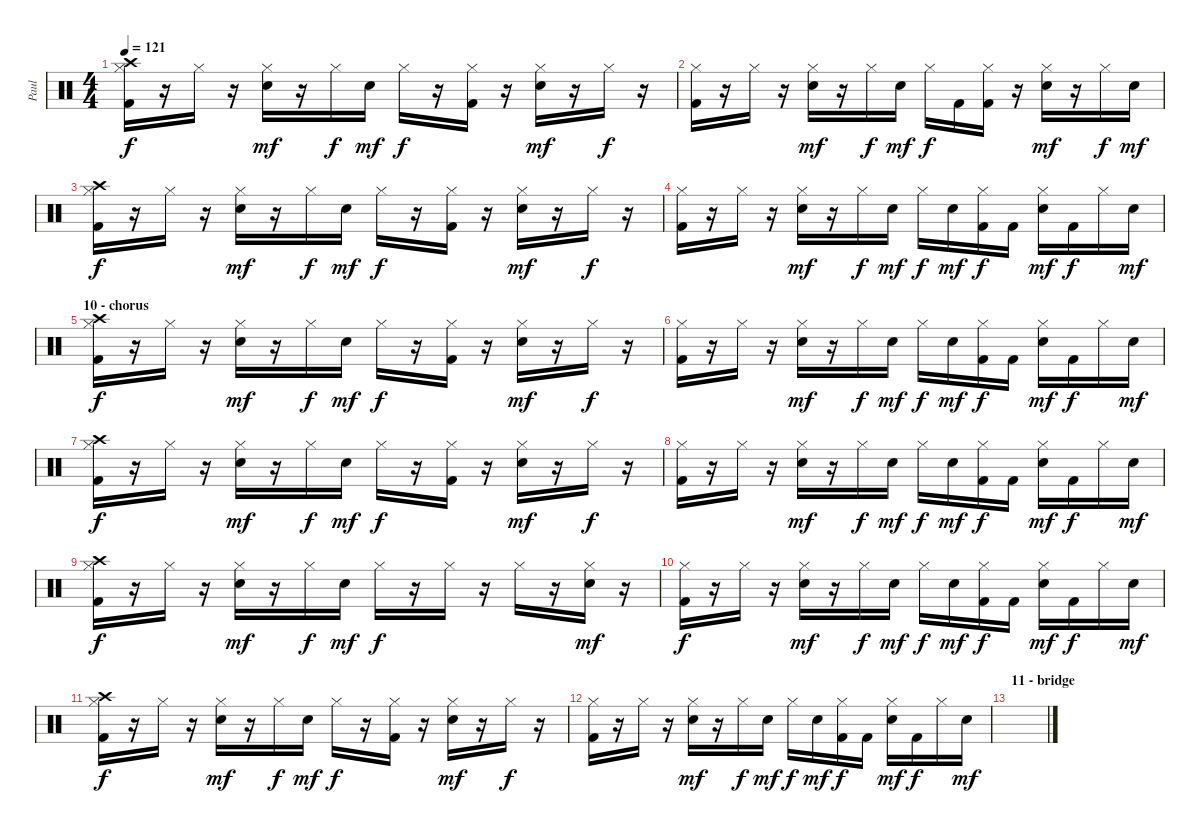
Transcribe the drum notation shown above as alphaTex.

\track ("Paul" "Paul") {instrument percussion}
\staff {score}
\articulation defaults
\ts (4 4)
\tempo 121
\clef neutral
\ks c
("Hi-Hat (closed)" "Crash high (hit)" "Kick (hit) 2").16{dy f} r.16 "Hi-Hat (closed)".16 r.16 ("Hi-Hat (closed)" "Snare (hit) 2").16{dy mf} r.16 "Hi-Hat (closed)".16{dy f} "Snare (hit) 2".16{dy mf} "Hi-Hat (closed)".16{dy f} r.16 ("Hi-Hat (closed)" "Kick (hit) 2").16 r.16 ("Hi-Hat (closed)" "Snare (hit) 2").16{dy mf} r.16 "Hi-Hat (closed)".16{dy f} r.16 |
("Hi-Hat (closed)" "Kick (hit) 2").16 r.16 "Hi-Hat (closed)".16 r.16 ("Hi-Hat (closed)" "Snare (hit) 2").16{dy mf} r.16 "Hi-Hat (closed)".16{dy f} "Snare (hit) 2".16{dy mf} "Hi-Hat (closed)".16{dy f} "Kick (hit) 2".16 ("Hi-Hat (closed)" "Kick (hit) 2").16 r.16 ("Hi-Hat (closed)" "Snare (hit) 2").16{dy mf} r.16 "Hi-Hat (closed)".16{dy f} "Snare (hit) 2".16{dy mf} |
("Hi-Hat (closed)" "Crash high (hit)" "Kick (hit) 2").16{dy f} r.16 "Hi-Hat (closed)".16 r.16 ("Hi-Hat (closed)" "Snare (hit) 2").16{dy mf} r.16 "Hi-Hat (closed)".16{dy f} "Snare (hit) 2".16{dy mf} "Hi-Hat (closed)".16{dy f} r.16 ("Hi-Hat (closed)" "Kick (hit) 2").16 r.16 ("Hi-Hat (closed)" "Snare (hit) 2").16{dy mf} r.16 "Hi-Hat (closed)".16{dy f} r.16 |
("Hi-Hat (closed)" "Kick (hit) 2").16 r.16 "Hi-Hat (closed)".16 r.16 ("Hi-Hat (closed)" "Snare (hit) 2").16{dy mf} r.16 "Hi-Hat (closed)".16{dy f} "Snare (hit) 2".16{dy mf} "Hi-Hat (closed)".16{dy f} "Snare (hit) 2".16{dy mf} ("Hi-Hat (closed)" "Kick (hit) 2").16{dy f} "Kick (hit) 2".16 ("Hi-Hat (closed)" "Snare (hit) 2").16{dy mf} "Kick (hit) 2".16{dy f} "Hi-Hat (closed)".16 "Snare (hit) 2".16{dy mf} |
\section ("" "10 - chorus")
("Hi-Hat (closed)" "Crash high (hit)" "Kick (hit) 2").16{dy f} r.16 "Hi-Hat (closed)".16 r.16 ("Hi-Hat (closed)" "Snare (hit) 2").16{dy mf} r.16 "Hi-Hat (closed)".16{dy f} "Snare (hit) 2".16{dy mf} "Hi-Hat (closed)".16{dy f} r.16 ("Hi-Hat (closed)" "Kick (hit) 2").16 r.16 ("Hi-Hat (closed)" "Snare (hit) 2").16{dy mf} r.16 "Hi-Hat (closed)".16{dy f} r.16 |
("Hi-Hat (closed)" "Kick (hit) 2").16 r.16 "Hi-Hat (closed)".16 r.16 ("Hi-Hat (closed)" "Snare (hit) 2").16{dy mf} r.16 "Hi-Hat (closed)".16{dy f} "Snare (hit) 2".16{dy mf} "Hi-Hat (closed)".16{dy f} "Snare (hit) 2".16{dy mf} ("Hi-Hat (closed)" "Kick (hit) 2").16{dy f} "Kick (hit) 2".16 ("Hi-Hat (closed)" "Snare (hit) 2").16{dy mf} "Kick (hit) 2".16{dy f} "Hi-Hat (closed)".16 "Snare (hit) 2".16{dy mf} |
("Hi-Hat (closed)" "Crash high (hit)" "Kick (hit) 2").16{dy f} r.16 "Hi-Hat (closed)".16 r.16 ("Hi-Hat (closed)" "Snare (hit) 2").16{dy mf} r.16 "Hi-Hat (closed)".16{dy f} "Snare (hit) 2".16{dy mf} "Hi-Hat (closed)".16{dy f} r.16 ("Hi-Hat (closed)" "Kick (hit) 2").16 r.16 ("Hi-Hat (closed)" "Snare (hit) 2").16{dy mf} r.16 "Hi-Hat (closed)".16{dy f} r.16 |
("Hi-Hat (closed)" "Kick (hit) 2").16 r.16 "Hi-Hat (closed)".16 r.16 ("Hi-Hat (closed)" "Snare (hit) 2").16{dy mf} r.16 "Hi-Hat (closed)".16{dy f} "Snare (hit) 2".16{dy mf} "Hi-Hat (closed)".16{dy f} "Snare (hit) 2".16{dy mf} ("Hi-Hat (closed)" "Kick (hit) 2").16{dy f} "Kick (hit) 2".16 ("Hi-Hat (closed)" "Snare (hit) 2").16{dy mf} "Kick (hit) 2".16{dy f} "Hi-Hat (closed)".16 "Snare (hit) 2".16{dy mf} |
("Hi-Hat (closed)" "Crash high (hit)" "Kick (hit) 2").16{dy f} r.16 "Hi-Hat (closed)".16 r.16 ("Hi-Hat (closed)" "Snare (hit) 2").16{dy mf} r.16 "Hi-Hat (closed)".16{dy f} "Snare (hit) 2".16{dy mf} "Hi-Hat (closed)".16{dy f} r.16 "Hi-Hat (closed)".16 r.16 "Hi-Hat (closed)".16 r.16 ("Hi-Hat (closed)" "Snare (hit) 2").16{dy mf} r.16 |
("Hi-Hat (closed)" "Kick (hit) 2").16{dy f} r.16 "Hi-Hat (closed)".16 r.16 ("Hi-Hat (closed)" "Snare (hit) 2").16{dy mf} r.16 "Hi-Hat (closed)".16{dy f} "Snare (hit) 2".16{dy mf} "Hi-Hat (closed)".16{dy f} "Snare (hit) 2".16{dy mf} ("Hi-Hat (closed)" "Kick (hit) 2").16{dy f} "Kick (hit) 2".16 ("Hi-Hat (closed)" "Snare (hit) 2").16{dy mf} "Kick (hit) 2".16{dy f} "Hi-Hat (closed)".16 "Snare (hit) 2".16{dy mf} |
("Hi-Hat (closed)" "Crash high (hit)" "Kick (hit) 2").16{dy f} r.16 "Hi-Hat (closed)".16 r.16 ("Hi-Hat (closed)" "Snare (hit) 2").16{dy mf} r.16 "Hi-Hat (closed)".16{dy f} "Snare (hit) 2".16{dy mf} "Hi-Hat (closed)".16{dy f} r.16 ("Hi-Hat (closed)" "Kick (hit) 2").16 r.16 ("Hi-Hat (closed)" "Snare (hit) 2").16{dy mf} r.16 "Hi-Hat (closed)".16{dy f} r.16 |
("Hi-Hat (closed)" "Kick (hit) 2").16 r.16 "Hi-Hat (closed)".16 r.16 ("Hi-Hat (closed)" "Snare (hit) 2").16{dy mf} r.16 "Hi-Hat (closed)".16{dy f} "Snare (hit) 2".16{dy mf} "Hi-Hat (closed)".16{dy f} "Snare (hit) 2".16{dy mf} ("Hi-Hat (closed)" "Kick (hit) 2").16{dy f} "Kick (hit) 2".16 ("Hi-Hat (closed)" "Snare (hit) 2").16{dy mf} "Kick (hit) 2".16{dy f} "Hi-Hat (closed)".16 "Snare (hit) 2".16{dy mf} |
\section ("" "11 - bridge")
